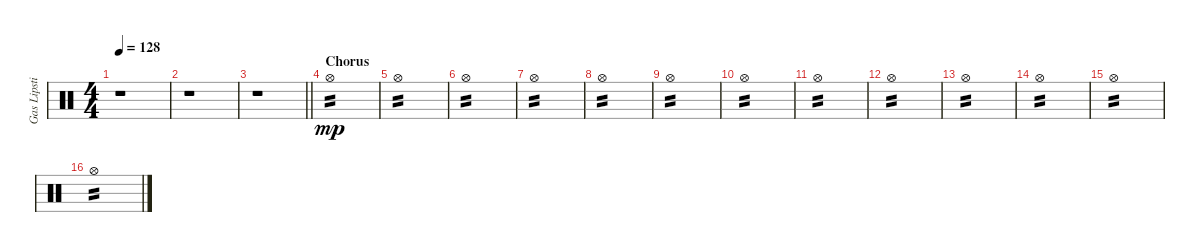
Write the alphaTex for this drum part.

\track ("Gas Lipstick (Drums)" "Gas Lipsti") {instrument percussion}
\staff {score}
\articulation defaults
\ts (4 4)
\tempo 128
\clef neutral
\ks c
r.1{dy mp} |
r.1 |
\barLineRight lightlight
r.1 |
\section ("" "Chorus")
"Hi-Hat (open)".1{tp 2} |
"Hi-Hat (open)".1{tp 2} |
"Hi-Hat (open)".1{tp 2} |
"Hi-Hat (open)".1{tp 2} |
"Hi-Hat (open)".1{tp 2} |
"Hi-Hat (open)".1{tp 2} |
"Hi-Hat (open)".1{tp 2} |
"Hi-Hat (open)".1{tp 2} |
"Hi-Hat (open)".1{tp 2} |
"Hi-Hat (open)".1{tp 2} |
"Hi-Hat (open)".1{tp 2} |
"Hi-Hat (open)".1{tp 2} |
"Hi-Hat (open)".1{tp 2}
